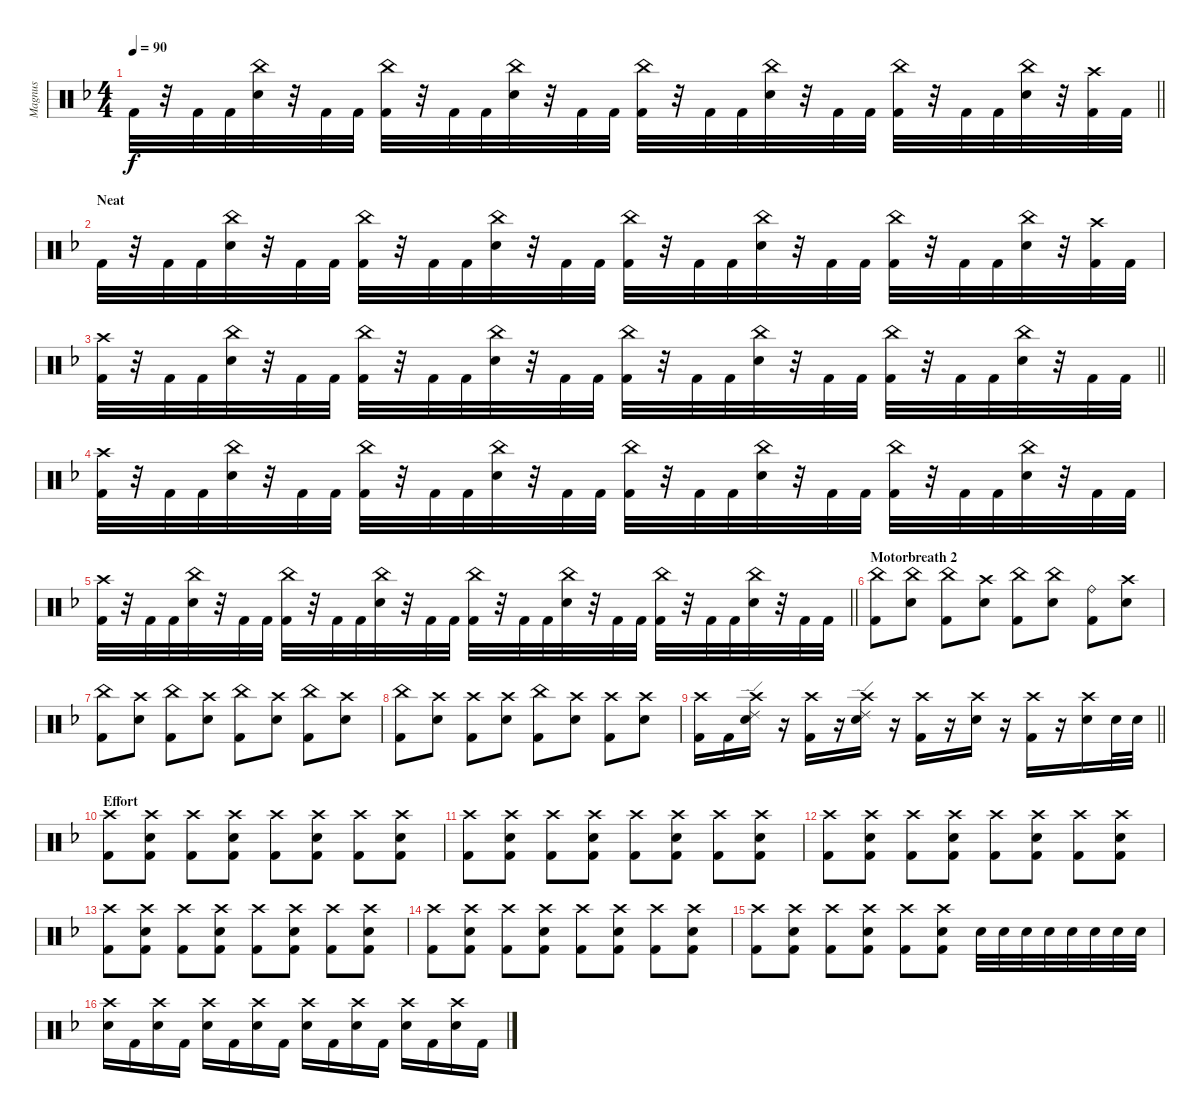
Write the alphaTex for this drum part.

\track ("Magnus" "Magnus") {instrument percussion}
\staff {score}
\articulation defaults
\ts (4 4)
\tempo 90
\clef neutral
\barLineRight lightlight
\ks dminor "Kick (hit) 2".32{dy f}
r.32 "Kick (hit) 2".32 "Kick (hit) 2".32 ("China (hit)" "Snare (hit) 2").32 r.32 "Kick (hit) 2".32 "Kick (hit) 2".32 ("China (hit)" "Kick (hit) 2").32 r.32 "Kick (hit) 2".32 "Kick (hit) 2".32 ("China (hit)" "Snare (hit) 2").32 r.32 "Kick (hit) 2".32 "Kick (hit) 2".32 ("China (hit)" "Kick (hit) 2").32 r.32 "Kick (hit) 2".32 "Kick (hit) 2".32 ("China (hit)" "Snare (hit) 2").32 r.32 "Kick (hit) 2".32 "Kick (hit) 2".32 ("China (hit)" "Kick (hit) 2").32 r.32 "Kick (hit) 2".32 "Kick (hit) 2".32 ("China (hit)" "Snare (hit) 2").32 r.32 ("Crash high (hit)" "Kick (hit) 2").32 "Kick (hit) 2".32 |
\section ("" "Neat")
"Kick (hit) 2".32 r.32 "Kick (hit) 2".32 "Kick (hit) 2".32 ("China (hit)" "Snare (hit) 2").32 r.32 "Kick (hit) 2".32 "Kick (hit) 2".32 ("China (hit)" "Kick (hit) 2").32 r.32 "Kick (hit) 2".32 "Kick (hit) 2".32 ("China (hit)" "Snare (hit) 2").32 r.32 "Kick (hit) 2".32 "Kick (hit) 2".32 ("China (hit)" "Kick (hit) 2").32 r.32 "Kick (hit) 2".32 "Kick (hit) 2".32 ("China (hit)" "Snare (hit) 2").32 r.32 "Kick (hit) 2".32 "Kick (hit) 2".32 ("China (hit)" "Kick (hit) 2").32 r.32 "Kick (hit) 2".32 "Kick (hit) 2".32 ("China (hit)" "Snare (hit) 2").32 r.32 ("Crash high (hit)" "Kick (hit) 2").32 "Kick (hit) 2".32 |
\barLineRight lightlight
("Crash high (hit)" "Kick (hit) 2").32 r.32 "Kick (hit) 2".32 "Kick (hit) 2".32 ("China (hit)" "Snare (hit) 2").32 r.32 "Kick (hit) 2".32 "Kick (hit) 2".32 ("China (hit)" "Kick (hit) 2").32 r.32 "Kick (hit) 2".32 "Kick (hit) 2".32 ("China (hit)" "Snare (hit) 2").32 r.32 "Kick (hit) 2".32 "Kick (hit) 2".32 ("China (hit)" "Kick (hit) 2").32 r.32 "Kick (hit) 2".32 "Kick (hit) 2".32 ("China (hit)" "Snare (hit) 2").32 r.32 "Kick (hit) 2".32 "Kick (hit) 2".32 ("China (hit)" "Kick (hit) 2").32 r.32 "Kick (hit) 2".32 "Kick (hit) 2".32 ("China (hit)" "Snare (hit) 2").32 r.32 "Kick (hit) 2".32 "Kick (hit) 2".32 |
("Crash high (hit)" "Kick (hit) 2").32 r.32 "Kick (hit) 2".32 "Kick (hit) 2".32 ("China (hit)" "Snare (hit) 2").32 r.32 "Kick (hit) 2".32 "Kick (hit) 2".32 ("China (hit)" "Kick (hit) 2").32 r.32 "Kick (hit) 2".32 "Kick (hit) 2".32 ("China (hit)" "Snare (hit) 2").32 r.32 "Kick (hit) 2".32 "Kick (hit) 2".32 ("China (hit)" "Kick (hit) 2").32 r.32 "Kick (hit) 2".32 "Kick (hit) 2".32 ("China (hit)" "Snare (hit) 2").32 r.32 "Kick (hit) 2".32 "Kick (hit) 2".32 ("China (hit)" "Kick (hit) 2").32 r.32 "Kick (hit) 2".32 "Kick (hit) 2".32 ("China (hit)" "Snare (hit) 2").32 r.32 "Kick (hit) 2".32 "Kick (hit) 2".32 |
\barLineRight lightlight
("Crash high (hit)" "Kick (hit) 2").32 r.32 "Kick (hit) 2".32 "Kick (hit) 2".32 ("China (hit)" "Snare (hit) 2").32 r.32 "Kick (hit) 2".32 "Kick (hit) 2".32 ("China (hit)" "Kick (hit) 2").32 r.32 "Kick (hit) 2".32 "Kick (hit) 2".32 ("China (hit)" "Snare (hit) 2").32 r.32 "Kick (hit) 2".32 "Kick (hit) 2".32 ("China (hit)" "Kick (hit) 2").32 r.32 "Kick (hit) 2".32 "Kick (hit) 2".32 ("China (hit)" "Snare (hit) 2").32 r.32 "Kick (hit) 2".32 "Kick (hit) 2".32 ("China (hit)" "Kick (hit) 2").32 r.32 "Kick (hit) 2".32 "Kick (hit) 2".32 ("China (hit)" "Snare (hit) 2").32 r.32 "Kick (hit) 2".32 "Kick (hit) 2".32 |
\section ("" "Motorbreath 2")
("China (hit)" "Kick (hit) 2").8 ("China (hit)" "Snare (hit) 2").8 ("China (hit)" "Kick (hit) 2").8 ("Crash high (hit)" "Snare (hit) 2").8 ("China (hit)" "Kick (hit) 2").8 ("China (hit)" "Snare (hit) 2").8 ("Ride (bell)" "Kick (hit) 2").8 ("Crash high (hit)" "Snare (hit) 2").8 |
("China (hit)" "Kick (hit) 2").8 ("Crash high (hit)" "Snare (hit) 2").8 ("China (hit)" "Kick (hit) 2").8 ("Crash high (hit)" "Snare (hit) 2").8 ("China (hit)" "Kick (hit) 2").8 ("Crash high (hit)" "Snare (hit) 2").8 ("China (hit)" "Kick (hit) 2").8 ("Crash high (hit)" "Snare (hit) 2").8 |
("China (hit)" "Kick (hit) 2").8 ("Crash high (hit)" "Snare (hit) 2").8 ("Crash high (hit)" "Kick (hit) 2").8 ("Crash high (hit)" "Snare (hit) 2").8 ("China (hit)" "Kick (hit) 2").8 ("Crash high (hit)" "Snare (hit) 2").8 ("Crash high (hit)" "Kick (hit) 2").8 ("Crash high (hit)" "Snare (hit) 2").8 |
\barLineRight lightlight
("Crash high (hit)" "Kick (hit) 2").16 "Kick (hit) 2".16 ("Ride (edge) 2" "Crash high (hit)" "Snare (hit) 2").16 r.16 ("Crash high (hit)" "Kick (hit) 2").16 r.16 ("Ride (edge) 2" "Crash high (hit)" "Snare (hit) 2").16 r.16 ("Crash high (hit)" "Kick (hit) 2").16 r.16 ("Crash high (hit)" "Snare (hit) 2").16 r.16 ("Crash high (hit)" "Kick (hit) 2").16 r.16 ("Crash high (hit)" "Snare (hit) 2").16 "Snare (hit) 2".32 "Snare (hit) 2".32 |
\section ("" "Effort")
("Crash high (hit)" "Kick (hit) 2").8 ("Crash high (hit)" "Snare (hit) 2" "Kick (hit) 2").8 ("Crash high (hit)" "Kick (hit) 2").8 ("Crash high (hit)" "Snare (hit) 2" "Kick (hit) 2").8 ("Crash high (hit)" "Kick (hit) 2").8 ("Crash high (hit)" "Snare (hit) 2" "Kick (hit) 2").8 ("Crash high (hit)" "Kick (hit) 2").8 ("Crash high (hit)" "Snare (hit) 2" "Kick (hit) 2").8 |
("Crash high (hit)" "Kick (hit) 2").8 ("Crash high (hit)" "Snare (hit) 2" "Kick (hit) 2").8 ("Crash high (hit)" "Kick (hit) 2").8 ("Crash high (hit)" "Snare (hit) 2" "Kick (hit) 2").8 ("Crash high (hit)" "Kick (hit) 2").8 ("Crash high (hit)" "Snare (hit) 2" "Kick (hit) 2").8 ("Crash high (hit)" "Kick (hit) 2").8 ("Crash high (hit)" "Snare (hit) 2" "Kick (hit) 2").8 |
("Crash high (hit)" "Kick (hit) 2").8 ("Crash high (hit)" "Snare (hit) 2" "Kick (hit) 2").8 ("Crash high (hit)" "Kick (hit) 2").8 ("Crash high (hit)" "Snare (hit) 2" "Kick (hit) 2").8 ("Crash high (hit)" "Kick (hit) 2").8 ("Crash high (hit)" "Snare (hit) 2" "Kick (hit) 2").8 ("Crash high (hit)" "Kick (hit) 2").8 ("Crash high (hit)" "Snare (hit) 2" "Kick (hit) 2").8 |
("Crash high (hit)" "Kick (hit) 2").8 ("Crash high (hit)" "Snare (hit) 2" "Kick (hit) 2").8 ("Crash high (hit)" "Kick (hit) 2").8 ("Crash high (hit)" "Snare (hit) 2" "Kick (hit) 2").8 ("Crash high (hit)" "Kick (hit) 2").8 ("Crash high (hit)" "Snare (hit) 2" "Kick (hit) 2").8 ("Crash high (hit)" "Kick (hit) 2").8 ("Crash high (hit)" "Snare (hit) 2" "Kick (hit) 2").8 |
("Crash high (hit)" "Kick (hit) 2").8 ("Crash high (hit)" "Snare (hit) 2" "Kick (hit) 2").8 ("Crash high (hit)" "Kick (hit) 2").8 ("Crash high (hit)" "Snare (hit) 2" "Kick (hit) 2").8 ("Crash high (hit)" "Kick (hit) 2").8 ("Crash high (hit)" "Snare (hit) 2" "Kick (hit) 2").8 ("Crash high (hit)" "Kick (hit) 2").8 ("Crash high (hit)" "Snare (hit) 2" "Kick (hit) 2").8 |
("Crash high (hit)" "Kick (hit) 2").8 ("Crash high (hit)" "Snare (hit) 2" "Kick (hit) 2").8 ("Crash high (hit)" "Kick (hit) 2").8 ("Crash high (hit)" "Snare (hit) 2" "Kick (hit) 2").8 ("Crash high (hit)" "Kick (hit) 2").8 ("Crash high (hit)" "Snare (hit) 2" "Kick (hit) 2").8 "Snare (hit) 2".32 "Snare (hit) 2".32 "Snare (hit) 2".32 "Snare (hit) 2".32 "Snare (hit) 2".32 "Snare (hit) 2".32 "Snare (hit) 2".32 "Snare (hit) 2".32 |
("Crash high (hit)" "Snare (hit) 2").16 "Kick (hit) 2".16 ("Crash high (hit)" "Snare (hit) 2").16 "Kick (hit) 2".16 ("Crash high (hit)" "Snare (hit) 2").16 "Kick (hit) 2".16 ("Crash high (hit)" "Snare (hit) 2").16 "Kick (hit) 2".16 ("Crash high (hit)" "Snare (hit) 2").16 "Kick (hit) 2".16 ("Crash high (hit)" "Snare (hit) 2").16 "Kick (hit) 2".16 ("Crash high (hit)" "Snare (hit) 2").16 "Kick (hit) 2".16 ("Crash high (hit)" "Snare (hit) 2").16 "Kick (hit) 2".16
